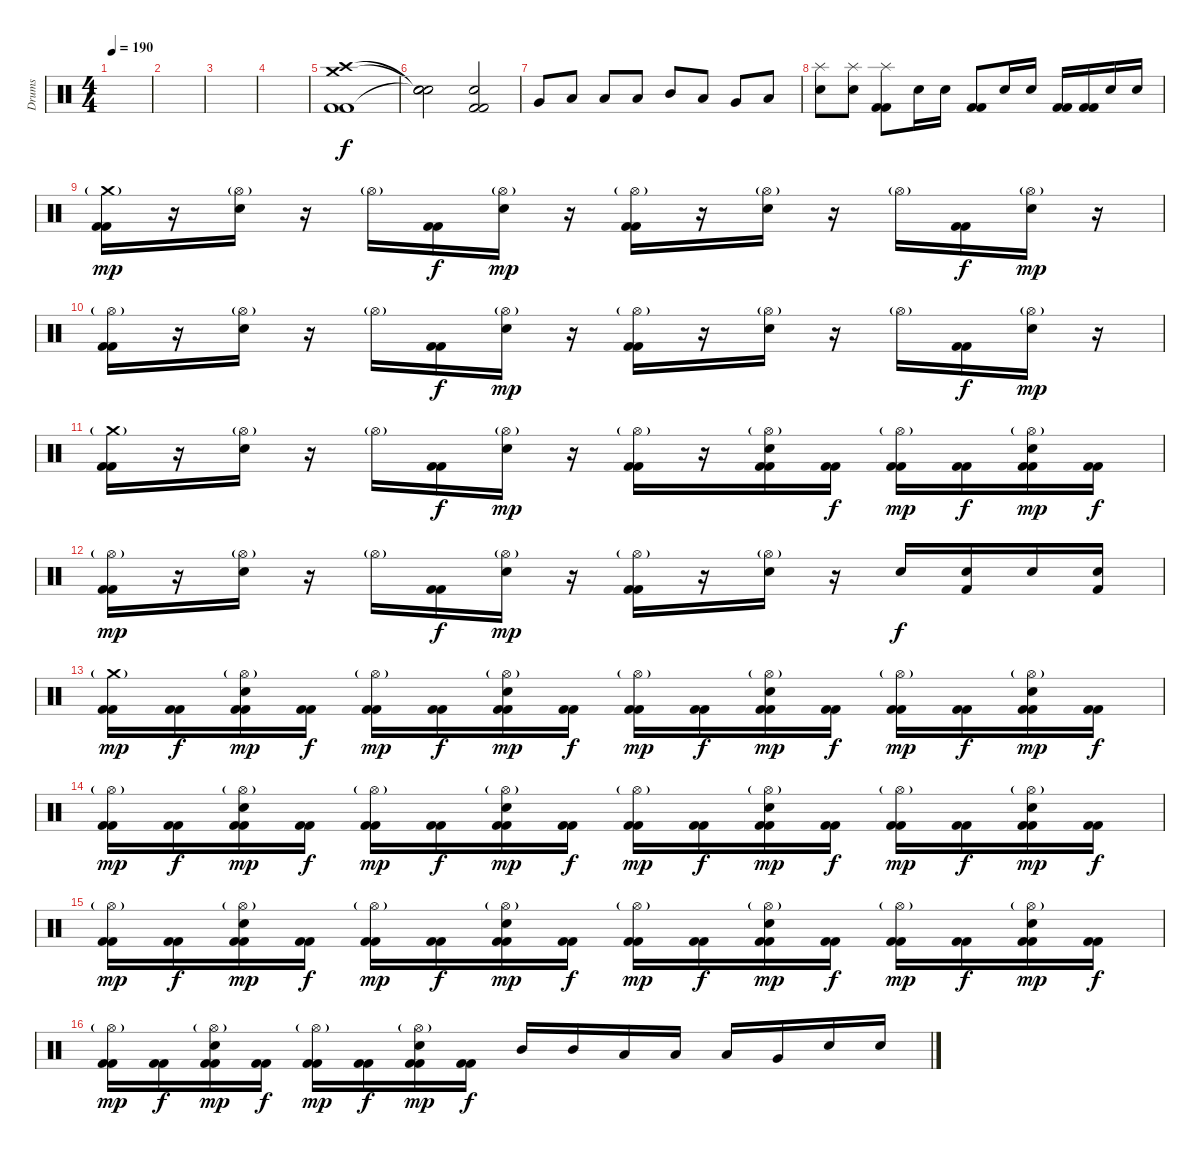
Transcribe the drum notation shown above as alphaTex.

\track ("Drums" "Drums") {instrument percussion}
\staff {score}
\articulation defaults
\ts (4 4)
\tempo 190
\clef neutral
\ks c
|
|
|
|
("Kick (hit) 2" "Crash medium (hit)" "Crash high (hit)" "Kick (hit) 2").1 |
("Snare (hit)"{t} "Snare (hit)"{t} "Snare (hit)"{t}).2 ("Kick (hit) 2" "Electric Snare (hit)" "Kick (hit) 2").2 |
"Very Low Tom (hit)".8 "Low Floor Tom (hit)".8 "Low Tom (hit)".8 "Low Floor Tom (hit)".8 "Mid Tom (hit)".8 "Low Floor Tom (hit)".8 "Very Low Tom (hit)".8 "Low Floor Tom (hit)".8 |
("Splash (hit)" "Electric Snare (hit)").8 ("Splash (hit)" "Electric Snare (hit)").8 ("Kick (hit) 2" "Splash (hit)" "Kick (hit) 2").8 "Electric Snare (hit)".16 "Electric Snare (hit)".16 ("Kick (hit) 2" "Kick (hit) 2").8 "Electric Snare (hit)".16 "Electric Snare (hit)".16 ("Kick (hit) 2" "Kick (hit) 2").16 ("Kick (hit) 2" "Kick (hit) 2").16 "Electric Snare (hit)".16 "Electric Snare (hit)".16 |
("Crash medium (hit)"{g} "Kick (hit) 2" "Kick (hit) 2").16{dy mp} r.16 ("Hi-Hat (open)"{g} "Electric Snare (hit)").16 r.16 "Hi-Hat (open)"{g}.16 ("Kick (hit) 2" "Kick (hit) 2").16{dy f} ("Hi-Hat (open)"{g} "Electric Snare (hit)").16{dy mp} r.16 ("Hi-Hat (open)"{g} "Kick (hit) 2" "Kick (hit) 2").16 r.16 ("Hi-Hat (open)"{g} "Electric Snare (hit)").16 r.16 "Hi-Hat (open)"{g}.16 ("Kick (hit) 2" "Kick (hit) 2").16{dy f} ("Hi-Hat (open)"{g} "Electric Snare (hit)").16{dy mp} r.16 |
("Hi-Hat (open)"{g} "Kick (hit) 2" "Kick (hit) 2").16 r.16 ("Hi-Hat (open)"{g} "Electric Snare (hit)").16 r.16 "Hi-Hat (open)"{g}.16 ("Kick (hit) 2" "Kick (hit) 2").16{dy f} ("Hi-Hat (open)"{g} "Electric Snare (hit)").16{dy mp} r.16 ("Hi-Hat (open)"{g} "Kick (hit) 2" "Kick (hit) 2").16 r.16 ("Hi-Hat (open)"{g} "Electric Snare (hit)").16 r.16 "Hi-Hat (open)"{g}.16 ("Kick (hit) 2" "Kick (hit) 2").16{dy f} ("Hi-Hat (open)"{g} "Electric Snare (hit)").16{dy mp} r.16 |
("Crash medium (hit)"{g} "Kick (hit) 2" "Kick (hit) 2").16 r.16 ("Hi-Hat (open)"{g} "Electric Snare (hit)").16 r.16 "Hi-Hat (open)"{g}.16 ("Kick (hit) 2" "Kick (hit) 2").16{dy f} ("Hi-Hat (open)"{g} "Electric Snare (hit)").16{dy mp} r.16 ("Hi-Hat (open)"{g} "Kick (hit) 2" "Kick (hit) 2").16 r.16 ("Hi-Hat (open)"{g} "Kick (hit) 2" "Electric Snare (hit)" "Kick (hit) 2").16 ("Kick (hit) 2" "Kick (hit) 2").16{dy f} ("Hi-Hat (open)"{g} "Kick (hit) 2" "Kick (hit) 2").16{dy mp} ("Kick (hit) 2" "Kick (hit) 2").16{dy f} ("Hi-Hat (open)"{g} "Kick (hit) 2" "Electric Snare (hit)" "Kick (hit) 2").16{dy mp} ("Kick (hit) 2" "Kick (hit) 2").16{dy f} |
("Hi-Hat (open)"{g} "Kick (hit) 2" "Kick (hit) 2").16{dy mp} r.16 ("Hi-Hat (open)"{g} "Electric Snare (hit)").16 r.16 "Hi-Hat (open)"{g}.16 ("Kick (hit) 2" "Kick (hit) 2").16{dy f} ("Hi-Hat (open)"{g} "Electric Snare (hit)").16{dy mp} r.16 ("Hi-Hat (open)"{g} "Kick (hit) 2" "Kick (hit) 2").16 r.16 ("Hi-Hat (open)"{g} "Electric Snare (hit)").16 r.16 "Electric Snare (hit)".16{dy f} ("Electric Snare (hit)" "Kick (hit) 2").16 "Electric Snare (hit)".16 ("Electric Snare (hit)" "Kick (hit) 2").16 |
("Crash medium (hit)"{g} "Kick (hit) 2" "Kick (hit) 2").16{dy mp} ("Kick (hit) 2" "Kick (hit) 2").16{dy f} ("Hi-Hat (open)"{g} "Kick (hit) 2" "Electric Snare (hit)" "Kick (hit) 2").16{dy mp} ("Kick (hit) 2" "Kick (hit) 2").16{dy f} ("Hi-Hat (open)"{g} "Kick (hit) 2" "Kick (hit) 2").16{dy mp} ("Kick (hit) 2" "Kick (hit) 2").16{dy f} ("Hi-Hat (open)"{g} "Kick (hit) 2" "Electric Snare (hit)" "Kick (hit) 2").16{dy mp} ("Kick (hit) 2" "Kick (hit) 2").16{dy f} ("Hi-Hat (open)"{g} "Kick (hit) 2" "Kick (hit) 2").16{dy mp} ("Kick (hit) 2" "Kick (hit) 2").16{dy f} ("Hi-Hat (open)"{g} "Kick (hit) 2" "Electric Snare (hit)" "Kick (hit) 2").16{dy mp} ("Kick (hit) 2" "Kick (hit) 2").16{dy f} ("Hi-Hat (open)"{g} "Kick (hit) 2" "Kick (hit) 2").16{dy mp} ("Kick (hit) 2" "Kick (hit) 2").16{dy f} ("Hi-Hat (open)"{g} "Kick (hit) 2" "Electric Snare (hit)" "Kick (hit) 2").16{dy mp} ("Kick (hit) 2" "Kick (hit) 2").16{dy f} |
("Hi-Hat (open)"{g} "Kick (hit) 2" "Kick (hit) 2").16{dy mp} ("Kick (hit) 2" "Kick (hit) 2").16{dy f} ("Hi-Hat (open)"{g} "Kick (hit) 2" "Electric Snare (hit)" "Kick (hit) 2").16{dy mp} ("Kick (hit) 2" "Kick (hit) 2").16{dy f} ("Hi-Hat (open)"{g} "Kick (hit) 2" "Kick (hit) 2").16{dy mp} ("Kick (hit) 2" "Kick (hit) 2").16{dy f} ("Hi-Hat (open)"{g} "Kick (hit) 2" "Electric Snare (hit)" "Kick (hit) 2").16{dy mp} ("Kick (hit) 2" "Kick (hit) 2").16{dy f} ("Hi-Hat (open)"{g} "Kick (hit) 2" "Kick (hit) 2").16{dy mp} ("Kick (hit) 2" "Kick (hit) 2").16{dy f} ("Hi-Hat (open)"{g} "Kick (hit) 2" "Electric Snare (hit)" "Kick (hit) 2").16{dy mp} ("Kick (hit) 2" "Kick (hit) 2").16{dy f} ("Hi-Hat (open)"{g} "Kick (hit) 2" "Kick (hit) 2").16{dy mp} ("Kick (hit) 2" "Kick (hit) 2").16{dy f} ("Hi-Hat (open)"{g} "Kick (hit) 2" "Electric Snare (hit)" "Kick (hit) 2").16{dy mp} ("Kick (hit) 2" "Kick (hit) 2").16{dy f} |
("Hi-Hat (open)"{g} "Kick (hit) 2" "Kick (hit) 2").16{dy mp} ("Kick (hit) 2" "Kick (hit) 2").16{dy f} ("Hi-Hat (open)"{g} "Kick (hit) 2" "Electric Snare (hit)" "Kick (hit) 2").16{dy mp} ("Kick (hit) 2" "Kick (hit) 2").16{dy f} ("Hi-Hat (open)"{g} "Kick (hit) 2" "Kick (hit) 2").16{dy mp} ("Kick (hit) 2" "Kick (hit) 2").16{dy f} ("Hi-Hat (open)"{g} "Kick (hit) 2" "Electric Snare (hit)" "Kick (hit) 2").16{dy mp} ("Kick (hit) 2" "Kick (hit) 2").16{dy f} ("Hi-Hat (open)"{g} "Kick (hit) 2" "Kick (hit) 2").16{dy mp} ("Kick (hit) 2" "Kick (hit) 2").16{dy f} ("Hi-Hat (open)"{g} "Kick (hit) 2" "Electric Snare (hit)" "Kick (hit) 2").16{dy mp} ("Kick (hit) 2" "Kick (hit) 2").16{dy f} ("Hi-Hat (open)"{g} "Kick (hit) 2" "Kick (hit) 2").16{dy mp} ("Kick (hit) 2" "Kick (hit) 2").16{dy f} ("Hi-Hat (open)"{g} "Kick (hit) 2" "Electric Snare (hit)" "Kick (hit) 2").16{dy mp} ("Kick (hit) 2" "Kick (hit) 2").16{dy f} |
("Hi-Hat (open)"{g} "Kick (hit) 2" "Kick (hit) 2").16{dy mp} ("Kick (hit) 2" "Kick (hit) 2").16{dy f} ("Hi-Hat (open)"{g} "Kick (hit) 2" "Electric Snare (hit)" "Kick (hit) 2").16{dy mp} ("Kick (hit) 2" "Kick (hit) 2").16{dy f} ("Hi-Hat (open)"{g} "Kick (hit) 2" "Kick (hit) 2").16{dy mp} ("Kick (hit) 2" "Kick (hit) 2").16{dy f} ("Hi-Hat (open)"{g} "Kick (hit) 2" "Electric Snare (hit)" "Kick (hit) 2").16{dy mp} ("Kick (hit) 2" "Kick (hit) 2").16{dy f} "Mid Tom (hit)".16 "Mid Tom (hit)".16 "Low Floor Tom (hit)".16 "Low Tom (hit)".16 "Low Tom (hit)".16 "Very Low Tom (hit)".16 "Electric Snare (hit)".16 "Electric Snare (hit)".16
